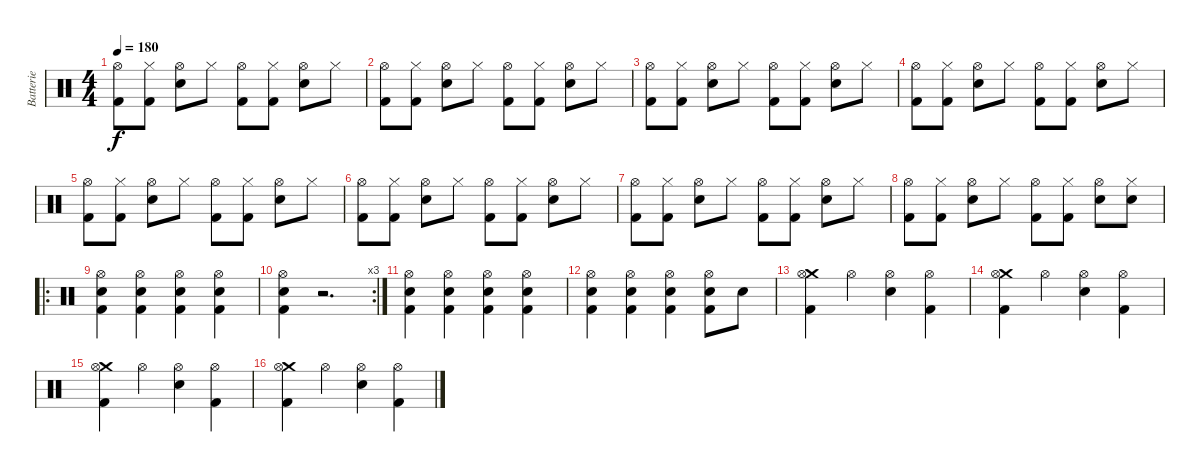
\track ("Batterie" "Batterie") {instrument percussion}
\staff {score}
\articulation defaults
\ts (4 4)
\tempo 180
\clef neutral
\ks c
("Hi-Hat (open)" "Kick (hit) 2").8{dy f} ("Hi-Hat (closed)" "Kick (hit) 2").8 ("Hi-Hat (open)" "Electric Snare (hit)").8 "Hi-Hat (closed)".8 ("Hi-Hat (open)" "Kick (hit) 2").8 ("Hi-Hat (closed)" "Kick (hit) 2").8 ("Hi-Hat (open)" "Electric Snare (hit)").8 "Hi-Hat (closed)".8 |
("Hi-Hat (open)" "Kick (hit) 2").8 ("Hi-Hat (closed)" "Kick (hit) 2").8 ("Hi-Hat (open)" "Electric Snare (hit)").8 "Hi-Hat (closed)".8 ("Hi-Hat (open)" "Kick (hit) 2").8 ("Hi-Hat (closed)" "Kick (hit) 2").8 ("Hi-Hat (open)" "Electric Snare (hit)").8 "Hi-Hat (closed)".8 |
("Hi-Hat (open)" "Kick (hit) 2").8 ("Hi-Hat (closed)" "Kick (hit) 2").8 ("Hi-Hat (open)" "Electric Snare (hit)").8 "Hi-Hat (closed)".8 ("Hi-Hat (open)" "Kick (hit) 2").8 ("Hi-Hat (closed)" "Kick (hit) 2").8 ("Hi-Hat (open)" "Electric Snare (hit)").8 "Hi-Hat (closed)".8 |
("Hi-Hat (open)" "Kick (hit) 2").8 ("Hi-Hat (closed)" "Kick (hit) 2").8 ("Hi-Hat (open)" "Electric Snare (hit)").8 "Hi-Hat (closed)".8 ("Hi-Hat (open)" "Kick (hit) 2").8 ("Hi-Hat (closed)" "Kick (hit) 2").8 ("Hi-Hat (open)" "Electric Snare (hit)").8 "Hi-Hat (closed)".8 |
("Hi-Hat (open)" "Kick (hit) 2").8 ("Hi-Hat (closed)" "Kick (hit) 2").8 ("Hi-Hat (open)" "Electric Snare (hit)").8 "Hi-Hat (closed)".8 ("Hi-Hat (open)" "Kick (hit) 2").8 ("Hi-Hat (closed)" "Kick (hit) 2").8 ("Hi-Hat (open)" "Electric Snare (hit)").8 "Hi-Hat (closed)".8 |
("Hi-Hat (open)" "Kick (hit) 2").8 ("Hi-Hat (closed)" "Kick (hit) 2").8 ("Hi-Hat (open)" "Electric Snare (hit)").8 "Hi-Hat (closed)".8 ("Hi-Hat (open)" "Kick (hit) 2").8 ("Hi-Hat (closed)" "Kick (hit) 2").8 ("Hi-Hat (open)" "Electric Snare (hit)").8 "Hi-Hat (closed)".8 |
("Hi-Hat (open)" "Kick (hit) 2").8 ("Hi-Hat (closed)" "Kick (hit) 2").8 ("Hi-Hat (open)" "Electric Snare (hit)").8 "Hi-Hat (closed)".8 ("Hi-Hat (open)" "Kick (hit) 2").8 ("Hi-Hat (closed)" "Kick (hit) 2").8 ("Hi-Hat (open)" "Electric Snare (hit)").8 "Hi-Hat (closed)".8 |
("Hi-Hat (open)" "Kick (hit) 2").8 ("Hi-Hat (closed)" "Kick (hit) 2").8 ("Hi-Hat (open)" "Electric Snare (hit)").8 "Hi-Hat (closed)".8 ("Hi-Hat (open)" "Kick (hit) 2").8 ("Hi-Hat (closed)" "Kick (hit) 2").8 ("Hi-Hat (open)" "Electric Snare (hit)").8 ("Hi-Hat (closed)" "Electric Snare (hit)").8 |
\ro
("Electric Snare (hit)" "Hi-Hat (open)" "Kick (hit) 2").4 ("Electric Snare (hit)" "Hi-Hat (open)" "Kick (hit) 2").4 ("Electric Snare (hit)" "Hi-Hat (open)" "Kick (hit) 2").4 ("Electric Snare (hit)" "Hi-Hat (open)" "Kick (hit) 2").4 |
\rc 3
("Electric Snare (hit)" "Hi-Hat (open)" "Kick (hit) 2").4 r.2{d} |
("Electric Snare (hit)" "Hi-Hat (open)" "Kick (hit) 2").4 ("Electric Snare (hit)" "Hi-Hat (open)" "Kick (hit) 2").4 ("Electric Snare (hit)" "Hi-Hat (open)" "Kick (hit) 2").4 ("Electric Snare (hit)" "Hi-Hat (open)" "Kick (hit) 2").4 |
("Electric Snare (hit)" "Hi-Hat (open)" "Kick (hit) 2").4 ("Electric Snare (hit)" "Hi-Hat (open)" "Kick (hit) 2").4 ("Electric Snare (hit)" "Hi-Hat (open)" "Kick (hit) 2").4 ("Electric Snare (hit)" "Hi-Hat (open)" "Kick (hit) 2").8 "Electric Snare (hit)".8 |
("Crash medium (hit)" "Hi-Hat (open)" "Kick (hit) 2").4 "Hi-Hat (open)".4 ("Electric Snare (hit)" "Hi-Hat (open)").4 ("Hi-Hat (open)" "Kick (hit) 2").4 |
("Crash medium (hit)" "Hi-Hat (open)" "Kick (hit) 2").4 "Hi-Hat (open)".4 ("Electric Snare (hit)" "Hi-Hat (open)").4 ("Hi-Hat (open)" "Kick (hit) 2").4 |
("Crash medium (hit)" "Hi-Hat (open)" "Kick (hit) 2").4 "Hi-Hat (open)".4 ("Electric Snare (hit)" "Hi-Hat (open)").4 ("Hi-Hat (open)" "Kick (hit) 2").4 |
("Crash medium (hit)" "Hi-Hat (open)" "Kick (hit) 2").4 "Hi-Hat (open)".4 ("Electric Snare (hit)" "Hi-Hat (open)").4 ("Hi-Hat (open)" "Kick (hit) 2").4
